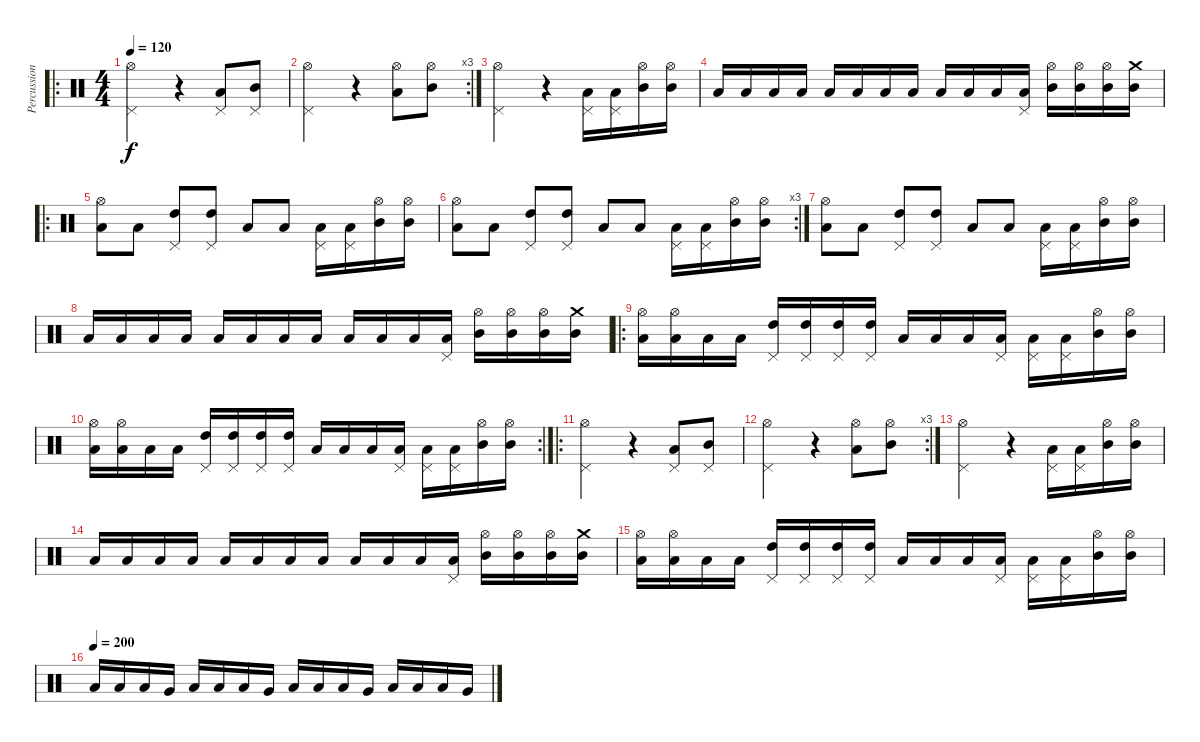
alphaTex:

\track ("Percussions" "Percussion") {instrument percussion}
\staff {score}
\articulation defaults
\ro
\ts (4 4)
\tempo 120
\clef neutral
\ks c
("Pedal Hi-Hat (hit)" "Hi-Hat (open)").2{dy f} r.4 ("Low Tom (hit)" "Pedal Hi-Hat (hit)").8 ("Mid Tom (hit)" "Pedal Hi-Hat (hit)").8 |
\rc 3
("Pedal Hi-Hat (hit)" "Hi-Hat (open)").2 r.4 ("Low Tom (hit)" "Hi-Hat (open)").8 ("Mid Tom (hit)" "Hi-Hat (open)").8 |
("Pedal Hi-Hat (hit)" "Hi-Hat (open)").2 r.4 ("Low Tom (hit)" "Pedal Hi-Hat (hit)").16 ("Low Tom (hit)" "Pedal Hi-Hat (hit)").16 ("Mid Tom (hit)" "Hi-Hat (open)").16 ("Mid Tom (hit)" "Hi-Hat (open)").16 |
"Low Tom (hit)".16 "Low Tom (hit)".16 "Low Tom (hit)".16 "Low Tom (hit)".16 "Low Tom (hit)".16 "Low Tom (hit)".16 "Low Tom (hit)".16 "Low Tom (hit)".16 "Low Tom (hit)".16 "Low Tom (hit)".16 "Low Tom (hit)".16 ("Low Tom (hit)" "Pedal Hi-Hat (hit)").16 ("Mid Tom (hit)" "Hi-Hat (open)").16 ("Mid Tom (hit)" "Hi-Hat (open)").16 ("Mid Tom (hit)" "Hi-Hat (open)").16 ("Mid Tom (hit)" "Crash medium (hit)").16 |
\ro
("Low Tom (hit)" "Hi-Hat (open)").8 "Low Tom (hit)".8 ("High Tom (hit)" "Pedal Hi-Hat (hit)").8 ("High Tom (hit)" "Pedal Hi-Hat (hit)").8 "Low Tom (hit)".8 "Low Tom (hit)".8 ("Low Tom (hit)" "Pedal Hi-Hat (hit)").16 ("Low Tom (hit)" "Pedal Hi-Hat (hit)").16 ("Mid Tom (hit)" "Hi-Hat (open)").16 ("Mid Tom (hit)" "Hi-Hat (open)").16 |
\rc 3
("Low Tom (hit)" "Hi-Hat (open)").8 "Low Tom (hit)".8 ("High Tom (hit)" "Pedal Hi-Hat (hit)").8 ("High Tom (hit)" "Pedal Hi-Hat (hit)").8 "Low Tom (hit)".8 "Low Tom (hit)".8 ("Low Tom (hit)" "Pedal Hi-Hat (hit)").16 ("Low Tom (hit)" "Pedal Hi-Hat (hit)").16 ("Mid Tom (hit)" "Hi-Hat (open)").16 ("Mid Tom (hit)" "Hi-Hat (open)").16 |
("Low Tom (hit)" "Hi-Hat (open)").8 "Low Tom (hit)".8 ("High Tom (hit)" "Pedal Hi-Hat (hit)").8 ("High Tom (hit)" "Pedal Hi-Hat (hit)").8 "Low Tom (hit)".8 "Low Tom (hit)".8 ("Low Tom (hit)" "Pedal Hi-Hat (hit)").16 ("Low Tom (hit)" "Pedal Hi-Hat (hit)").16 ("Mid Tom (hit)" "Hi-Hat (open)").16 ("Mid Tom (hit)" "Hi-Hat (open)").16 |
"Low Tom (hit)".16 "Low Tom (hit)".16 "Low Tom (hit)".16 "Low Tom (hit)".16 "Low Tom (hit)".16 "Low Tom (hit)".16 "Low Tom (hit)".16 "Low Tom (hit)".16 "Low Tom (hit)".16 "Low Tom (hit)".16 "Low Tom (hit)".16 ("Low Tom (hit)" "Pedal Hi-Hat (hit)").16 ("Mid Tom (hit)" "Hi-Hat (open)").16 ("Mid Tom (hit)" "Hi-Hat (open)").16 ("Mid Tom (hit)" "Hi-Hat (open)").16 ("Mid Tom (hit)" "Crash medium (hit)").16 |
\ro
("Low Tom (hit)" "Hi-Hat (open)").16 ("Low Tom (hit)" "Hi-Hat (open)").16 "Low Tom (hit)".16 "Low Tom (hit)".16 ("High Tom (hit)" "Pedal Hi-Hat (hit)").16 ("High Tom (hit)" "Pedal Hi-Hat (hit)").16 ("High Tom (hit)" "Pedal Hi-Hat (hit)").16 ("High Tom (hit)" "Pedal Hi-Hat (hit)").16 "Low Tom (hit)".16 "Low Tom (hit)".16 "Low Tom (hit)".16 ("Low Tom (hit)" "Pedal Hi-Hat (hit)").16 ("Low Tom (hit)" "Pedal Hi-Hat (hit)").16 ("Low Tom (hit)" "Pedal Hi-Hat (hit)").16 ("Mid Tom (hit)" "Hi-Hat (open)").16 ("Mid Tom (hit)" "Hi-Hat (open)").16 |
\rc 2
("Low Tom (hit)" "Hi-Hat (open)").16 ("Low Tom (hit)" "Hi-Hat (open)").16 "Low Tom (hit)".16 "Low Tom (hit)".16 ("High Tom (hit)" "Pedal Hi-Hat (hit)").16 ("High Tom (hit)" "Pedal Hi-Hat (hit)").16 ("High Tom (hit)" "Pedal Hi-Hat (hit)").16 ("High Tom (hit)" "Pedal Hi-Hat (hit)").16 "Low Tom (hit)".16 "Low Tom (hit)".16 "Low Tom (hit)".16 ("Low Tom (hit)" "Pedal Hi-Hat (hit)").16 ("Low Tom (hit)" "Pedal Hi-Hat (hit)").16 ("Low Tom (hit)" "Pedal Hi-Hat (hit)").16 ("Mid Tom (hit)" "Hi-Hat (open)").16 ("Mid Tom (hit)" "Hi-Hat (open)").16 |
\ro
("Pedal Hi-Hat (hit)" "Hi-Hat (open)").2 r.4 ("Low Tom (hit)" "Pedal Hi-Hat (hit)").8 ("Mid Tom (hit)" "Pedal Hi-Hat (hit)").8 |
\rc 3
("Pedal Hi-Hat (hit)" "Hi-Hat (open)").2 r.4 ("Low Tom (hit)" "Hi-Hat (open)").8 ("Mid Tom (hit)" "Hi-Hat (open)").8 |
("Pedal Hi-Hat (hit)" "Hi-Hat (open)").2 r.4 ("Low Tom (hit)" "Pedal Hi-Hat (hit)").16 ("Low Tom (hit)" "Pedal Hi-Hat (hit)").16 ("Mid Tom (hit)" "Hi-Hat (open)").16 ("Mid Tom (hit)" "Hi-Hat (open)").16 |
"Low Tom (hit)".16 "Low Tom (hit)".16 "Low Tom (hit)".16 "Low Tom (hit)".16 "Low Tom (hit)".16 "Low Tom (hit)".16 "Low Tom (hit)".16 "Low Tom (hit)".16 "Low Tom (hit)".16 "Low Tom (hit)".16 "Low Tom (hit)".16 ("Low Tom (hit)" "Pedal Hi-Hat (hit)").16 ("Mid Tom (hit)" "Hi-Hat (open)").16 ("Mid Tom (hit)" "Hi-Hat (open)").16 ("Mid Tom (hit)" "Hi-Hat (open)").16 ("Mid Tom (hit)" "Crash medium (hit)").16 |
("Low Tom (hit)" "Hi-Hat (open)").16 ("Low Tom (hit)" "Hi-Hat (open)").16 "Low Tom (hit)".16 "Low Tom (hit)".16 ("High Tom (hit)" "Pedal Hi-Hat (hit)").16 ("High Tom (hit)" "Pedal Hi-Hat (hit)").16 ("High Tom (hit)" "Pedal Hi-Hat (hit)").16 ("High Tom (hit)" "Pedal Hi-Hat (hit)").16 "Low Tom (hit)".16 "Low Tom (hit)".16 "Low Tom (hit)".16 ("Low Tom (hit)" "Pedal Hi-Hat (hit)").16 ("Low Tom (hit)" "Pedal Hi-Hat (hit)").16 ("Low Tom (hit)" "Pedal Hi-Hat (hit)").16 ("Mid Tom (hit)" "Hi-Hat (open)").16 ("Mid Tom (hit)" "Hi-Hat (open)").16 |
\tempo (200)
"Low Floor Tom (hit)".16 "Low Floor Tom (hit)".16 "Low Floor Tom (hit)".16 "Very Low Tom (hit)".16 "Low Floor Tom (hit)".16 "Low Floor Tom (hit)".16 "Low Floor Tom (hit)".16 "Very Low Tom (hit)".16 "Low Floor Tom (hit)".16 "Low Floor Tom (hit)".16 "Low Floor Tom (hit)".16 "Very Low Tom (hit)".16 "Low Floor Tom (hit)".16 "Low Floor Tom (hit)".16 "Low Floor Tom (hit)".16 "Very Low Tom (hit)".16
